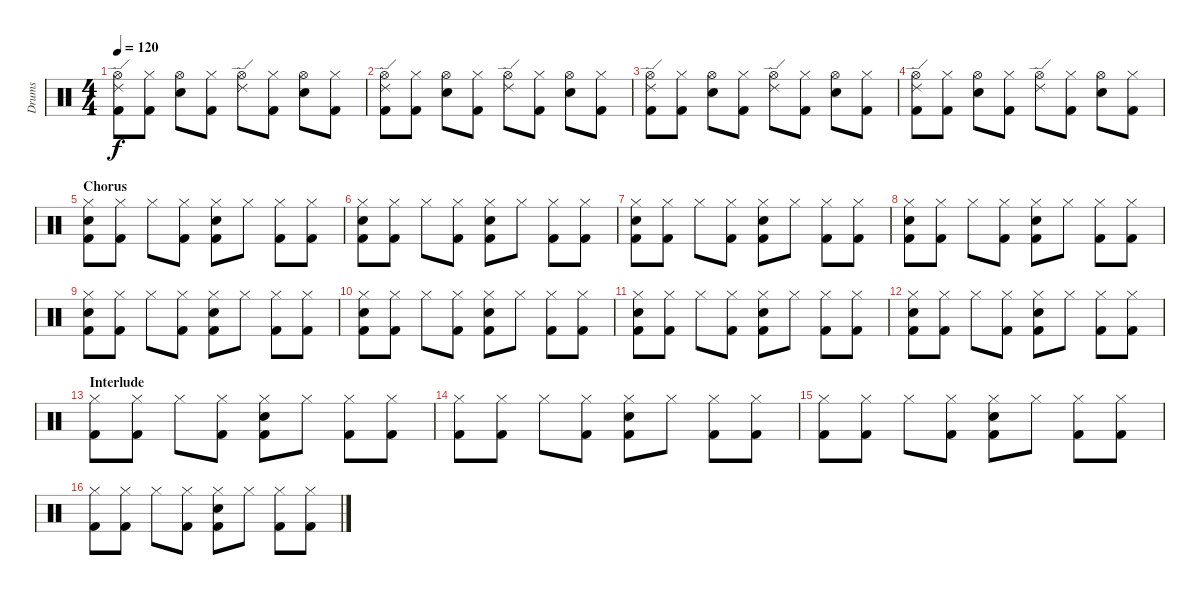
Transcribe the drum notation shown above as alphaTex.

\track ("Drums" "Drums") {instrument percussion}
\staff {score}
\articulation defaults
\ts (4 4)
\tempo 120
\clef neutral
\ks c
("Hi-Hat (open)" "Ride (edge) 2" "Kick (hit) 2").8{dy f} ("Hi-Hat (closed)" "Kick (hit) 2").8 ("Hi-Hat (open)" "Snare (hit) 2").8 ("Hi-Hat (closed)" "Kick (hit) 2").8 ("Hi-Hat (open)" "Ride (edge) 2").8 ("Hi-Hat (closed)" "Kick (hit) 2").8 ("Hi-Hat (open)" "Snare (hit) 2").8 ("Hi-Hat (closed)" "Kick (hit) 2").8 |
("Hi-Hat (open)" "Ride (edge) 2" "Kick (hit) 2").8 ("Hi-Hat (closed)" "Kick (hit) 2").8 ("Hi-Hat (open)" "Snare (hit) 2").8 ("Hi-Hat (closed)" "Kick (hit) 2").8 ("Hi-Hat (open)" "Ride (edge) 2").8 ("Hi-Hat (closed)" "Kick (hit) 2").8 ("Hi-Hat (open)" "Snare (hit) 2").8 ("Hi-Hat (closed)" "Kick (hit) 2").8 |
("Hi-Hat (open)" "Ride (edge) 2" "Kick (hit) 2").8 ("Hi-Hat (closed)" "Kick (hit) 2").8 ("Hi-Hat (open)" "Snare (hit) 2").8 ("Hi-Hat (closed)" "Kick (hit) 2").8 ("Hi-Hat (open)" "Ride (edge) 2").8 ("Hi-Hat (closed)" "Kick (hit) 2").8 ("Hi-Hat (open)" "Snare (hit) 2").8 ("Hi-Hat (closed)" "Kick (hit) 2").8 |
("Hi-Hat (open)" "Ride (edge) 2" "Kick (hit) 2").8 ("Hi-Hat (closed)" "Kick (hit) 2").8 ("Hi-Hat (open)" "Snare (hit) 2").8 ("Hi-Hat (closed)" "Kick (hit) 2").8 ("Hi-Hat (open)" "Ride (edge) 2").8 ("Hi-Hat (closed)" "Kick (hit) 2").8 ("Hi-Hat (open)" "Snare (hit) 2").8 ("Hi-Hat (closed)" "Kick (hit) 2").8 |
\section ("" "Chorus")
("Hi-Hat (closed)" "Snare (hit) 2" "Kick (hit) 2").8 ("Hi-Hat (closed)" "Kick (hit) 2").8 "Hi-Hat (closed)".8 ("Hi-Hat (closed)" "Kick (hit) 2").8 ("Hi-Hat (closed)" "Snare (hit) 2" "Kick (hit) 2").8 "Hi-Hat (closed)".8 ("Hi-Hat (closed)" "Kick (hit) 2").8 ("Hi-Hat (closed)" "Kick (hit) 2").8 |
("Hi-Hat (closed)" "Snare (hit) 2" "Kick (hit) 2").8 ("Hi-Hat (closed)" "Kick (hit) 2").8 "Hi-Hat (closed)".8 ("Hi-Hat (closed)" "Kick (hit) 2").8 ("Hi-Hat (closed)" "Snare (hit) 2" "Kick (hit) 2").8 "Hi-Hat (closed)".8 ("Hi-Hat (closed)" "Kick (hit) 2").8 ("Hi-Hat (closed)" "Kick (hit) 2").8 |
("Hi-Hat (closed)" "Snare (hit) 2" "Kick (hit) 2").8 ("Hi-Hat (closed)" "Kick (hit) 2").8 "Hi-Hat (closed)".8 ("Hi-Hat (closed)" "Kick (hit) 2").8 ("Hi-Hat (closed)" "Snare (hit) 2" "Kick (hit) 2").8 "Hi-Hat (closed)".8 ("Hi-Hat (closed)" "Kick (hit) 2").8 ("Hi-Hat (closed)" "Kick (hit) 2").8 |
("Hi-Hat (closed)" "Snare (hit) 2" "Kick (hit) 2").8 ("Hi-Hat (closed)" "Kick (hit) 2").8 "Hi-Hat (closed)".8 ("Hi-Hat (closed)" "Kick (hit) 2").8 ("Hi-Hat (closed)" "Snare (hit) 2" "Kick (hit) 2").8 "Hi-Hat (closed)".8 ("Hi-Hat (closed)" "Kick (hit) 2").8 ("Hi-Hat (closed)" "Kick (hit) 2").8 |
("Hi-Hat (closed)" "Snare (hit) 2" "Kick (hit) 2").8 ("Hi-Hat (closed)" "Kick (hit) 2").8 "Hi-Hat (closed)".8 ("Hi-Hat (closed)" "Kick (hit) 2").8 ("Hi-Hat (closed)" "Snare (hit) 2" "Kick (hit) 2").8 "Hi-Hat (closed)".8 ("Hi-Hat (closed)" "Kick (hit) 2").8 ("Hi-Hat (closed)" "Kick (hit) 2").8 |
("Hi-Hat (closed)" "Snare (hit) 2" "Kick (hit) 2").8 ("Hi-Hat (closed)" "Kick (hit) 2").8 "Hi-Hat (closed)".8 ("Hi-Hat (closed)" "Kick (hit) 2").8 ("Hi-Hat (closed)" "Snare (hit) 2" "Kick (hit) 2").8 "Hi-Hat (closed)".8 ("Hi-Hat (closed)" "Kick (hit) 2").8 ("Hi-Hat (closed)" "Kick (hit) 2").8 |
("Hi-Hat (closed)" "Snare (hit) 2" "Kick (hit) 2").8 ("Hi-Hat (closed)" "Kick (hit) 2").8 "Hi-Hat (closed)".8 ("Hi-Hat (closed)" "Kick (hit) 2").8 ("Hi-Hat (closed)" "Snare (hit) 2" "Kick (hit) 2").8 "Hi-Hat (closed)".8 ("Hi-Hat (closed)" "Kick (hit) 2").8 ("Hi-Hat (closed)" "Kick (hit) 2").8 |
("Hi-Hat (closed)" "Snare (hit) 2" "Kick (hit) 2").8 ("Hi-Hat (closed)" "Kick (hit) 2").8 "Hi-Hat (closed)".8 ("Hi-Hat (closed)" "Kick (hit) 2").8 ("Hi-Hat (closed)" "Snare (hit) 2" "Kick (hit) 2").8 "Hi-Hat (closed)".8 ("Hi-Hat (closed)" "Kick (hit) 2").8 ("Hi-Hat (closed)" "Kick (hit) 2").8 |
\section ("" "Interlude")
("Hi-Hat (closed)" "Kick (hit) 2").8 ("Hi-Hat (closed)" "Kick (hit) 2").8 "Hi-Hat (closed)".8 ("Hi-Hat (closed)" "Kick (hit) 2").8 ("Hi-Hat (closed)" "Snare (hit) 2" "Kick (hit) 2").8 "Hi-Hat (closed)".8 ("Hi-Hat (closed)" "Kick (hit) 2").8 ("Hi-Hat (closed)" "Kick (hit) 2").8 |
("Hi-Hat (closed)" "Kick (hit) 2").8 ("Hi-Hat (closed)" "Kick (hit) 2").8 "Hi-Hat (closed)".8 ("Hi-Hat (closed)" "Kick (hit) 2").8 ("Hi-Hat (closed)" "Snare (hit) 2" "Kick (hit) 2").8 "Hi-Hat (closed)".8 ("Hi-Hat (closed)" "Kick (hit) 2").8 ("Hi-Hat (closed)" "Kick (hit) 2").8 |
("Hi-Hat (closed)" "Kick (hit) 2").8 ("Hi-Hat (closed)" "Kick (hit) 2").8 "Hi-Hat (closed)".8 ("Hi-Hat (closed)" "Kick (hit) 2").8 ("Hi-Hat (closed)" "Snare (hit) 2" "Kick (hit) 2").8 "Hi-Hat (closed)".8 ("Hi-Hat (closed)" "Kick (hit) 2").8 ("Hi-Hat (closed)" "Kick (hit) 2").8 |
("Hi-Hat (closed)" "Kick (hit) 2").8 ("Hi-Hat (closed)" "Kick (hit) 2").8 "Hi-Hat (closed)".8 ("Hi-Hat (closed)" "Kick (hit) 2").8 ("Hi-Hat (closed)" "Snare (hit) 2" "Kick (hit) 2").8 "Hi-Hat (closed)".8 ("Hi-Hat (closed)" "Kick (hit) 2").8 ("Hi-Hat (closed)" "Kick (hit) 2").8
